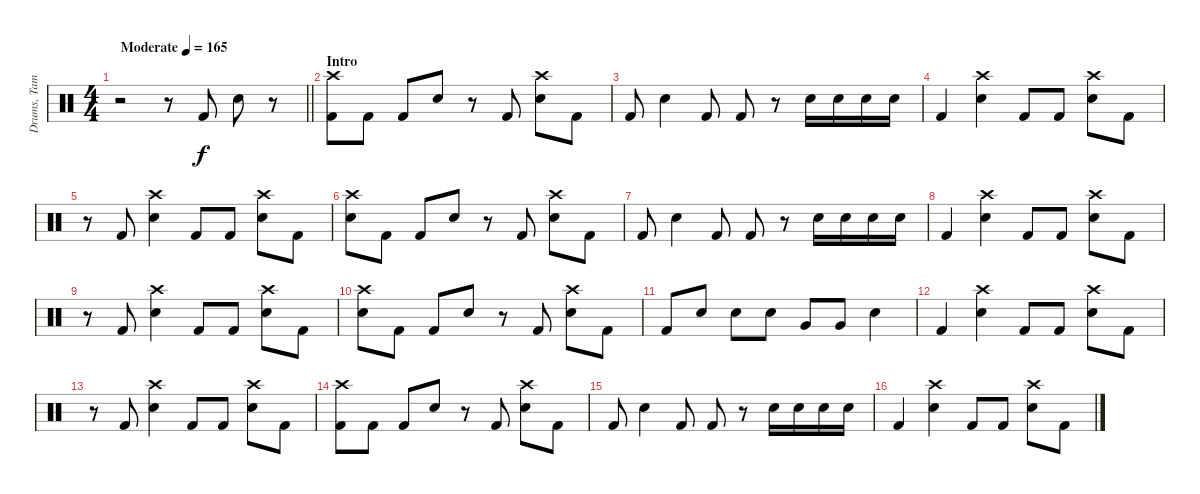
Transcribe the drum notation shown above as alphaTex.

\track ("Drums, Tambourine, Castinets" "Drums, Tam") {instrument percussion}
\staff {score}
\articulation defaults
\ts (4 4)
\tempo (165 "Moderate")
\clef neutral
\barLineRight lightlight
\ks c
r.2{dy f} r.8 "Kick (hit) 2".8 "Snare (hit) 2".8 r.8 |
\section ("" "Intro")
("Crash high (hit)" "Kick (hit) 2").8 "Kick (hit) 2".8 "Kick (hit) 2".8 "Snare (hit) 2".8 r.8 "Kick (hit) 2".8 ("Crash high (hit)" "Snare (hit) 2").8 "Kick (hit) 2".8 |
"Kick (hit) 2".8 "Snare (hit) 2".4 "Kick (hit) 2".8 "Kick (hit) 2".8 r.8 "Snare (hit) 2".16 "Snare (hit) 2".16 "Snare (hit) 2".16 "Snare (hit) 2".16 |
"Kick (hit) 2".4 ("Crash high (hit)" "Snare (hit) 2").4 "Kick (hit) 2".8 "Kick (hit) 2".8 ("Crash high (hit)" "Snare (hit) 2").8 "Kick (hit) 2".8 |
r.8 "Kick (hit) 2".8 ("Crash high (hit)" "Snare (hit) 2").4 "Kick (hit) 2".8 "Kick (hit) 2".8 ("Crash high (hit)" "Snare (hit) 2").8 "Kick (hit) 2".8 |
("Crash high (hit)" "Snare (hit) 2").8 "Kick (hit) 2".8 "Kick (hit) 2".8 "Snare (hit) 2".8 r.8 "Kick (hit) 2".8 ("Crash high (hit)" "Snare (hit) 2").8 "Kick (hit) 2".8 |
"Kick (hit) 2".8 "Snare (hit) 2".4 "Kick (hit) 2".8 "Kick (hit) 2".8 r.8 "Snare (hit) 2".16 "Snare (hit) 2".16 "Snare (hit) 2".16 "Snare (hit) 2".16 |
"Kick (hit) 2".4 ("Crash high (hit)" "Snare (hit) 2").4 "Kick (hit) 2".8 "Kick (hit) 2".8 ("Crash high (hit)" "Snare (hit) 2").8 "Kick (hit) 2".8 |
r.8 "Kick (hit) 2".8 ("Crash high (hit)" "Snare (hit) 2").4 "Kick (hit) 2".8 "Kick (hit) 2".8 ("Crash high (hit)" "Snare (hit) 2").8 "Kick (hit) 2".8 |
("Crash high (hit)" "Snare (hit) 2").8 "Kick (hit) 2".8 "Kick (hit) 2".8 "Snare (hit) 2".8 r.8 "Kick (hit) 2".8 ("Crash high (hit)" "Snare (hit) 2").8 "Kick (hit) 2".8 |
"Kick (hit) 2".8 "Snare (hit) 2".8 "Snare (hit) 2".8 "Snare (hit) 2".8 "Very Low Tom (hit)".8 "Very Low Tom (hit)".8 "Snare (hit) 2".4 |
"Kick (hit) 2".4 ("Crash high (hit)" "Snare (hit) 2").4 "Kick (hit) 2".8 "Kick (hit) 2".8 ("Crash high (hit)" "Snare (hit) 2").8 "Kick (hit) 2".8 |
r.8 "Kick (hit) 2".8 ("Crash high (hit)" "Snare (hit) 2").4 "Kick (hit) 2".8 "Kick (hit) 2".8 ("Crash high (hit)" "Snare (hit) 2").8 "Kick (hit) 2".8 |
("Crash high (hit)" "Kick (hit) 2").8 "Kick (hit) 2".8 "Kick (hit) 2".8 "Snare (hit) 2".8 r.8 "Kick (hit) 2".8 ("Crash high (hit)" "Snare (hit) 2").8 "Kick (hit) 2".8 |
"Kick (hit) 2".8 "Snare (hit) 2".4 "Kick (hit) 2".8 "Kick (hit) 2".8 r.8 "Snare (hit) 2".16 "Snare (hit) 2".16 "Snare (hit) 2".16 "Snare (hit) 2".16 |
"Kick (hit) 2".4 ("Crash high (hit)" "Snare (hit) 2").4 "Kick (hit) 2".8 "Kick (hit) 2".8 ("Crash high (hit)" "Snare (hit) 2").8 "Kick (hit) 2".8
